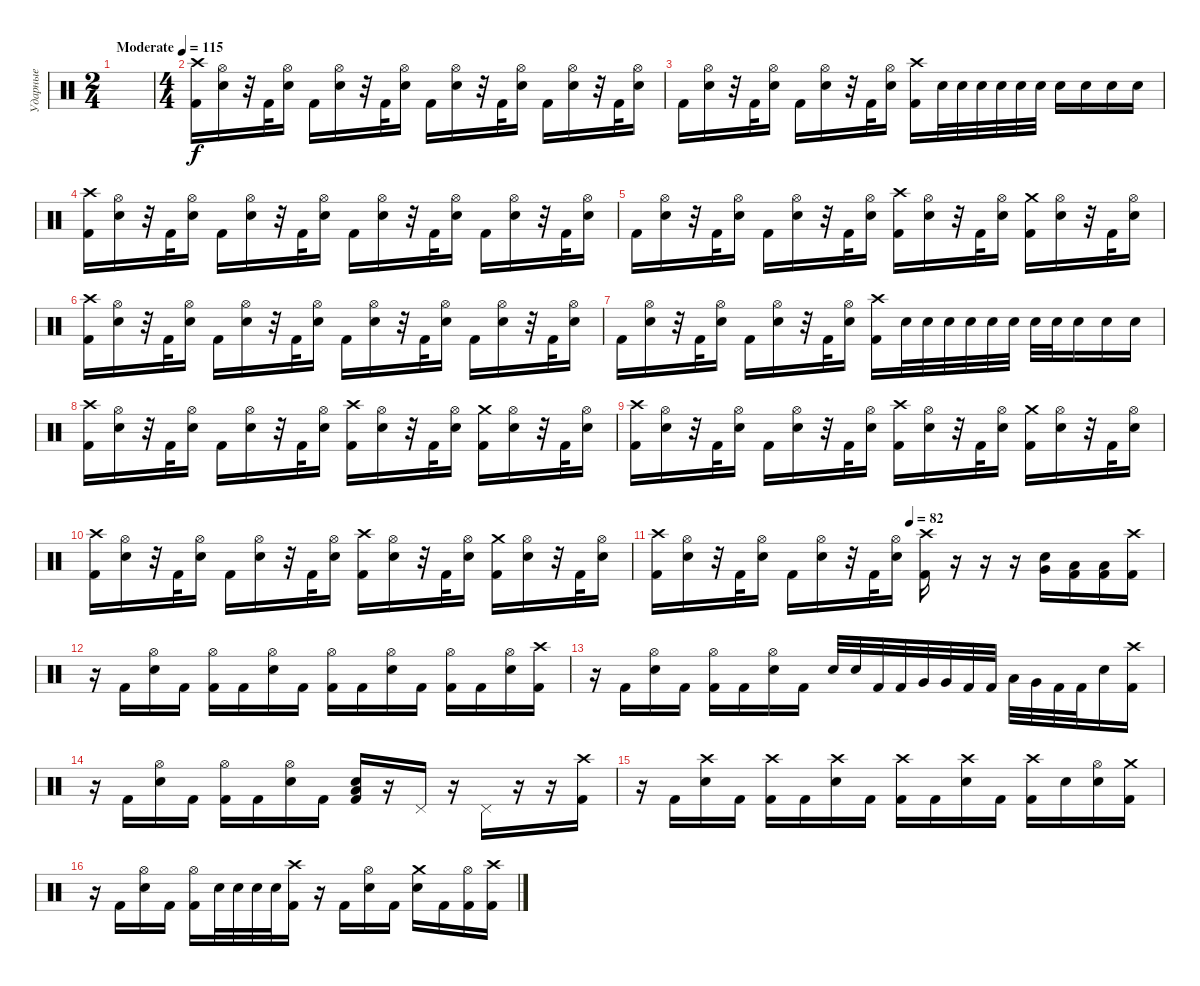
\track ("Ударные" "Ударные") {instrument percussion}
\staff {score}
\articulation defaults
\ts (2 4)
\tempo (115 "Moderate")
\clef neutral
\ks c
|
\ts (4 4)
("Crash high (hit)" "Kick (hit) 2").16 ("Hi-Hat (open)" "Electric Snare (hit)").16 r.32 "Kick (hit) 2".32 ("Hi-Hat (open)" "Electric Snare (hit)").16 "Kick (hit) 2".16 ("Hi-Hat (open)" "Electric Snare (hit)").16 r.32 "Kick (hit) 2".32 ("Hi-Hat (open)" "Electric Snare (hit)").16 "Kick (hit) 2".16 ("Hi-Hat (open)" "Electric Snare (hit)").16 r.32 "Kick (hit) 2".32 ("Hi-Hat (open)" "Electric Snare (hit)").16 "Kick (hit) 2".16 ("Hi-Hat (open)" "Electric Snare (hit)").16 r.32 "Kick (hit) 2".32 ("Hi-Hat (open)" "Electric Snare (hit)").16 |
"Kick (hit) 2".16 ("Hi-Hat (open)" "Electric Snare (hit)").16 r.32 "Kick (hit) 2".32 ("Hi-Hat (open)" "Electric Snare (hit)").16 "Kick (hit) 2".16 ("Hi-Hat (open)" "Electric Snare (hit)").16 r.32 "Kick (hit) 2".32 ("Hi-Hat (open)" "Electric Snare (hit)").16 ("Crash high (hit)" "Kick (hit) 2").16 "Electric Snare (hit)".32 "Electric Snare (hit)".32 "Electric Snare (hit)".32 "Electric Snare (hit)".32 "Electric Snare (hit)".32 "Electric Snare (hit)".32 "Electric Snare (hit)".16 "Electric Snare (hit)".16 "Electric Snare (hit)".16 "Electric Snare (hit)".16 |
("Crash high (hit)" "Kick (hit) 2").16 ("Hi-Hat (open)" "Electric Snare (hit)").16 r.32 "Kick (hit) 2".32 ("Hi-Hat (open)" "Electric Snare (hit)").16 "Kick (hit) 2".16 ("Hi-Hat (open)" "Electric Snare (hit)").16 r.32 "Kick (hit) 2".32 ("Hi-Hat (open)" "Electric Snare (hit)").16 "Kick (hit) 2".16 ("Hi-Hat (open)" "Electric Snare (hit)").16 r.32 "Kick (hit) 2".32 ("Hi-Hat (open)" "Electric Snare (hit)").16 "Kick (hit) 2".16 ("Hi-Hat (open)" "Electric Snare (hit)").16 r.32 "Kick (hit) 2".32 ("Hi-Hat (open)" "Electric Snare (hit)").16 |
"Kick (hit) 2".16 ("Hi-Hat (open)" "Electric Snare (hit)").16 r.32 "Kick (hit) 2".32 ("Hi-Hat (open)" "Electric Snare (hit)").16 "Kick (hit) 2".16 ("Hi-Hat (open)" "Electric Snare (hit)").16 r.32 "Kick (hit) 2".32 ("Hi-Hat (open)" "Electric Snare (hit)").16 ("Crash high (hit)" "Kick (hit) 2").16 ("Hi-Hat (open)" "Electric Snare (hit)").16 r.32 "Kick (hit) 2".32 ("Hi-Hat (open)" "Electric Snare (hit)").16 ("Crash medium (hit)" "Kick (hit) 2").16 ("Hi-Hat (open)" "Electric Snare (hit)").16 r.32 "Kick (hit) 2".32 ("Hi-Hat (open)" "Electric Snare (hit)").16 |
("Crash high (hit)" "Kick (hit) 2").16 ("Hi-Hat (open)" "Electric Snare (hit)").16 r.32 "Kick (hit) 2".32 ("Hi-Hat (open)" "Electric Snare (hit)").16 "Kick (hit) 2".16 ("Hi-Hat (open)" "Electric Snare (hit)").16 r.32 "Kick (hit) 2".32 ("Hi-Hat (open)" "Electric Snare (hit)").16 "Kick (hit) 2".16 ("Hi-Hat (open)" "Electric Snare (hit)").16 r.32 "Kick (hit) 2".32 ("Hi-Hat (open)" "Electric Snare (hit)").16 "Kick (hit) 2".16 ("Hi-Hat (open)" "Electric Snare (hit)").16 r.32 "Kick (hit) 2".32 ("Hi-Hat (open)" "Electric Snare (hit)").16 |
"Kick (hit) 2".16 ("Hi-Hat (open)" "Electric Snare (hit)").16 r.32 "Kick (hit) 2".32 ("Hi-Hat (open)" "Electric Snare (hit)").16 "Kick (hit) 2".16 ("Hi-Hat (open)" "Electric Snare (hit)").16 r.32 "Kick (hit) 2".32 ("Hi-Hat (open)" "Electric Snare (hit)").16 ("Crash high (hit)" "Kick (hit) 2").16 "Electric Snare (hit)".32 "Electric Snare (hit)".32 "Electric Snare (hit)".32 "Electric Snare (hit)".32 "Electric Snare (hit)".32 "Electric Snare (hit)".32 "Electric Snare (hit)".32 "Electric Snare (hit)".32 "Electric Snare (hit)".16 "Electric Snare (hit)".16 "Electric Snare (hit)".16 |
("Crash high (hit)" "Kick (hit) 2").16 ("Hi-Hat (open)" "Electric Snare (hit)").16 r.32 "Kick (hit) 2".32 ("Hi-Hat (open)" "Electric Snare (hit)").16 "Kick (hit) 2".16 ("Hi-Hat (open)" "Electric Snare (hit)").16 r.32 "Kick (hit) 2".32 ("Hi-Hat (open)" "Electric Snare (hit)").16 ("Crash high (hit)" "Kick (hit) 2").16 ("Hi-Hat (open)" "Electric Snare (hit)").16 r.32 "Kick (hit) 2".32 ("Hi-Hat (open)" "Electric Snare (hit)").16 ("Crash medium (hit)" "Kick (hit) 2").16 ("Hi-Hat (open)" "Electric Snare (hit)").16 r.32 "Kick (hit) 2".32 ("Hi-Hat (open)" "Electric Snare (hit)").16 |
("Crash high (hit)" "Kick (hit) 2").16 ("Hi-Hat (open)" "Electric Snare (hit)").16 r.32 "Kick (hit) 2".32 ("Hi-Hat (open)" "Electric Snare (hit)").16 "Kick (hit) 2".16 ("Hi-Hat (open)" "Electric Snare (hit)").16 r.32 "Kick (hit) 2".32 ("Hi-Hat (open)" "Electric Snare (hit)").16 ("Crash high (hit)" "Kick (hit) 2").16 ("Hi-Hat (open)" "Electric Snare (hit)").16 r.32 "Kick (hit) 2".32 ("Hi-Hat (open)" "Electric Snare (hit)").16 ("Crash medium (hit)" "Kick (hit) 2").16 ("Hi-Hat (open)" "Electric Snare (hit)").16 r.32 "Kick (hit) 2".32 ("Hi-Hat (open)" "Electric Snare (hit)").16 |
("Crash high (hit)" "Kick (hit) 2").16 ("Hi-Hat (open)" "Electric Snare (hit)").16 r.32 "Kick (hit) 2".32 ("Hi-Hat (open)" "Electric Snare (hit)").16 "Kick (hit) 2".16 ("Hi-Hat (open)" "Electric Snare (hit)").16 r.32 "Kick (hit) 2".32 ("Hi-Hat (open)" "Electric Snare (hit)").16 ("Crash high (hit)" "Kick (hit) 2").16 ("Hi-Hat (open)" "Electric Snare (hit)").16 r.32 "Kick (hit) 2".32 ("Hi-Hat (open)" "Electric Snare (hit)").16 ("Crash medium (hit)" "Kick (hit) 2").16 ("Hi-Hat (open)" "Electric Snare (hit)").16 r.32 "Kick (hit) 2".32 ("Hi-Hat (open)" "Electric Snare (hit)").16 |
\tempo (82 0.5)
("Crash high (hit)" "Kick (hit) 2").16 ("Hi-Hat (open)" "Electric Snare (hit)").16 r.32 "Kick (hit) 2".32 ("Hi-Hat (open)" "Electric Snare (hit)").16 "Kick (hit) 2".16 ("Hi-Hat (open)" "Electric Snare (hit)").16 r.32 "Kick (hit) 2".32 ("Hi-Hat (open)" "Electric Snare (hit)").16 ("Crash high (hit)" "Kick (hit) 2").16 r.16 r.16 r.16 ("Very Low Tom (hit)" "Electric Snare (hit)").16 ("Low Floor Tom (hit)" "Kick (hit) 2").16 ("Low Floor Tom (hit)" "Kick (hit) 2").16 ("Crash high (hit)" "Kick (hit) 2").16 |
r.16 "Kick (hit) 2".16 ("Hi-Hat (open)" "Electric Snare (hit)").16 "Kick (hit) 2".16 ("Hi-Hat (open)" "Kick (hit) 2").16 "Kick (hit) 2".16 ("Hi-Hat (open)" "Electric Snare (hit)").16 "Kick (hit) 2".16 ("Hi-Hat (open)" "Kick (hit) 2").16 "Kick (hit) 2".16 ("Hi-Hat (open)" "Electric Snare (hit)").16 "Kick (hit) 2".16 ("Hi-Hat (open)" "Kick (hit) 2").16 "Kick (hit) 2".16 ("Hi-Hat (open)" "Electric Snare (hit)").16 ("Crash high (hit)" "Kick (hit) 2").16 |
r.16 "Kick (hit) 2".16 ("Hi-Hat (open)" "Electric Snare (hit)").16 "Kick (hit) 2".16 ("Hi-Hat (open)" "Kick (hit) 2").16 "Kick (hit) 2".16 ("Hi-Hat (open)" "Electric Snare (hit)").16 "Kick (hit) 2".16 "Electric Snare (hit)".32 "Electric Snare (hit)".32 "Kick (hit) 2".32 "Kick (hit) 2".32 "Very Low Tom (hit)".32 "Very Low Tom (hit)".32 "Kick (hit) 2".32 "Kick (hit) 2".32 "Low Floor Tom (hit)".32 "Very Low Tom (hit)".32 "Kick (hit) 2".32 "Kick (hit) 2".32 "Electric Snare (hit)".16 ("Crash high (hit)" "Kick (hit) 2").16 |
r.16 "Kick (hit) 2".16 ("Hi-Hat (open)" "Electric Snare (hit)").16 "Kick (hit) 2".16 ("Hi-Hat (open)" "Kick (hit) 2").16 "Kick (hit) 2".16 ("Hi-Hat (open)" "Electric Snare (hit)").16 "Kick (hit) 2".16 ("Low Floor Tom (hit)" "Electric Snare (hit)" "Kick (hit) 2").16 r.16 "Pedal Hi-Hat (hit)".16 r.16 "Pedal Hi-Hat (hit)".16 r.16 r.16 ("Crash high (hit)" "Kick (hit) 2").16 |
r.16 "Kick (hit) 2".16 ("Crash high (hit)" "Electric Snare (hit)").16 "Kick (hit) 2".16 ("Crash high (hit)" "Kick (hit) 2").16 "Kick (hit) 2".16 ("Crash high (hit)" "Electric Snare (hit)").16 "Kick (hit) 2".16 ("Crash high (hit)" "Kick (hit) 2").16 "Kick (hit) 2".16 ("Crash high (hit)" "Electric Snare (hit)").16 "Kick (hit) 2".16 ("Crash high (hit)" "Kick (hit) 2").16 "Electric Snare (hit)".16 ("Hi-Hat (open)" "Electric Snare (hit)").16 ("Crash medium (hit)" "Kick (hit) 2").16 |
r.16 "Kick (hit) 2".16 ("Hi-Hat (open)" "Electric Snare (hit)").16 "Kick (hit) 2".16 ("Hi-Hat (open)" "Kick (hit) 2").16 "Electric Snare (hit)".32 "Electric Snare (hit)".32 "Electric Snare (hit)".32 "Electric Snare (hit)".32 ("Crash high (hit)" "Kick (hit) 2").16 r.16 "Kick (hit) 2".16 ("Hi-Hat (open)" "Electric Snare (hit)").16 "Kick (hit) 2".16 ("Crash medium (hit)" "Electric Snare (hit)").16 "Kick (hit) 2".16 ("Hi-Hat (open)" "Kick (hit) 2").16 ("Crash high (hit)" "Kick (hit) 2").16
